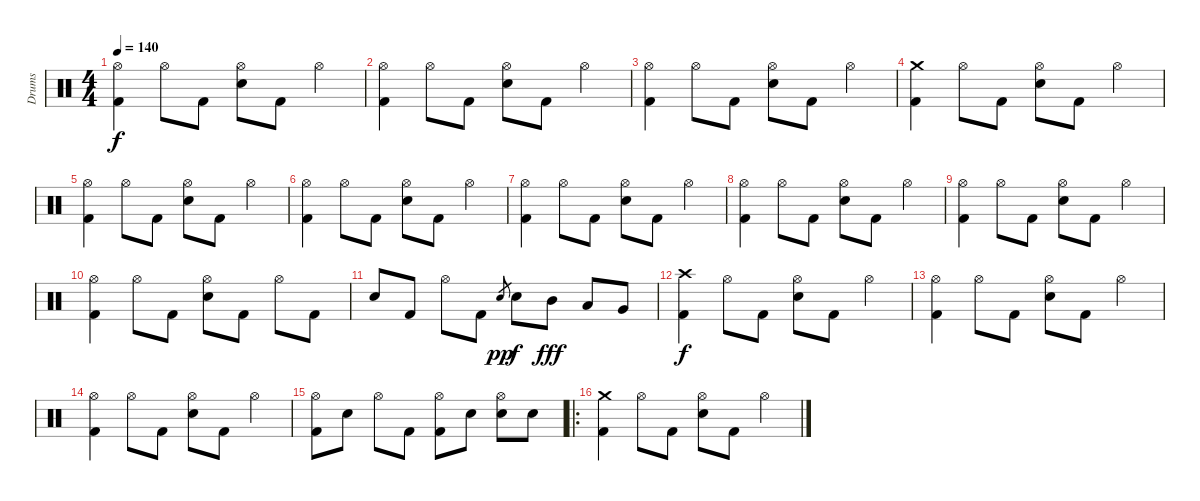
\track ("Drums" "Drums") {instrument percussion}
\staff {score}
\articulation defaults
\ts (4 4)
\tempo 140
\clef neutral
\ks c
("Kick (hit) 2" "Hi-Hat (open)").4{dy f} "Hi-Hat (open)".8 "Kick (hit) 2".8 ("Hi-Hat (open)" "Snare (hit) 2").8 "Kick (hit) 2".8 "Hi-Hat (open)".4 |
("Kick (hit) 2" "Hi-Hat (open)").4 "Hi-Hat (open)".8 "Kick (hit) 2".8 ("Hi-Hat (open)" "Snare (hit) 2").8 "Kick (hit) 2".8 "Hi-Hat (open)".4 |
("Kick (hit) 2" "Hi-Hat (open)").4 "Hi-Hat (open)".8 "Kick (hit) 2".8 ("Hi-Hat (open)" "Snare (hit) 2").8 "Kick (hit) 2".8 "Hi-Hat (open)".4 |
("Kick (hit) 2" "Crash medium (hit)").4 "Hi-Hat (open)".8 "Kick (hit) 2".8 ("Hi-Hat (open)" "Snare (hit) 2").8 "Kick (hit) 2".8 "Hi-Hat (open)".4 |
("Kick (hit) 2" "Hi-Hat (open)").4 "Hi-Hat (open)".8 "Kick (hit) 2".8 ("Hi-Hat (open)" "Snare (hit) 2").8 "Kick (hit) 2".8 "Hi-Hat (open)".4 |
("Kick (hit) 2" "Hi-Hat (open)").4 "Hi-Hat (open)".8 "Kick (hit) 2".8 ("Hi-Hat (open)" "Snare (hit) 2").8 "Kick (hit) 2".8 "Hi-Hat (open)".4 |
("Kick (hit) 2" "Hi-Hat (open)").4 "Hi-Hat (open)".8 "Kick (hit) 2".8 ("Hi-Hat (open)" "Snare (hit) 2").8 "Kick (hit) 2".8 "Hi-Hat (open)".4 |
("Kick (hit) 2" "Hi-Hat (open)").4 "Hi-Hat (open)".8 "Kick (hit) 2".8 ("Hi-Hat (open)" "Snare (hit) 2").8 "Kick (hit) 2".8 "Hi-Hat (open)".4 |
("Kick (hit) 2" "Hi-Hat (open)").4 "Hi-Hat (open)".8 "Kick (hit) 2".8 ("Hi-Hat (open)" "Snare (hit) 2").8 "Kick (hit) 2".8 "Hi-Hat (open)".4 |
("Kick (hit) 2" "Hi-Hat (open)").4 "Hi-Hat (open)".8 "Kick (hit) 2".8 ("Hi-Hat (open)" "Snare (hit) 2").8 "Kick (hit) 2".8 "Hi-Hat (open)".8 "Kick (hit) 2".8 |
"Snare (hit) 2".8 "Kick (hit) 2".8 "Hi-Hat (open)".8 "Kick (hit) 2".8 "Snare (hit)".8{gr dy pp} "Snare (hit) 2".8{dy f} "Mid Tom (hit)".8{dy fff} "Low Tom (hit)".8 "Very Low Tom (hit)".8 |
("Kick (hit) 2" "Crash high (hit)").4{dy f} "Hi-Hat (open)".8 "Kick (hit) 2".8 ("Hi-Hat (open)" "Snare (hit) 2").8 "Kick (hit) 2".8 "Hi-Hat (open)".4 |
("Kick (hit) 2" "Hi-Hat (open)").4 "Hi-Hat (open)".8 "Kick (hit) 2".8 ("Hi-Hat (open)" "Snare (hit) 2").8 "Kick (hit) 2".8 "Hi-Hat (open)".4 |
("Kick (hit) 2" "Hi-Hat (open)").4 "Hi-Hat (open)".8 "Kick (hit) 2".8 ("Hi-Hat (open)" "Snare (hit) 2").8 "Kick (hit) 2".8 "Hi-Hat (open)".4 |
("Kick (hit) 2" "Hi-Hat (open)").8 "Snare (hit) 2".8 "Hi-Hat (open)".8 "Kick (hit) 2".8 ("Kick (hit) 2" "Hi-Hat (open)").8 "Snare (hit) 2".8 ("Hi-Hat (open)" "Snare (hit) 2").8 "Snare (hit) 2".8 |
\ro
("Kick (hit) 2" "Crash medium (hit)").4 "Hi-Hat (open)".8 "Kick (hit) 2".8 ("Hi-Hat (open)" "Snare (hit) 2").8 "Kick (hit) 2".8 "Hi-Hat (open)".4
